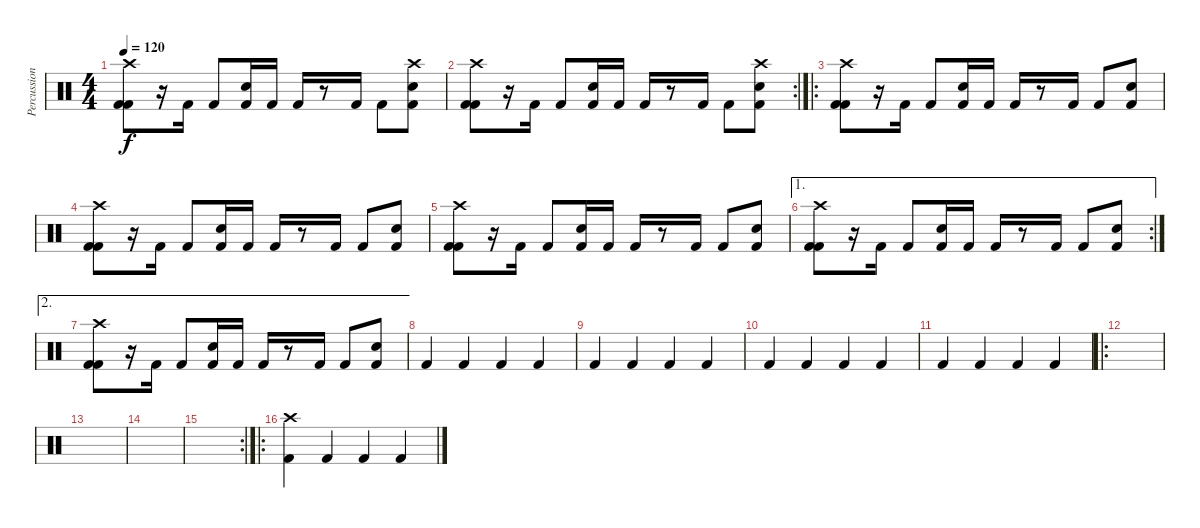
\track ("Percussion" "Percussion") {instrument percussion}
\staff {score}
\articulation defaults
\ts (4 4)
\tempo 120
\clef neutral
\ks c
("Crash high (hit)" "Kick (hit) 2" "Kick (hit) 2").8{dy f} r.16 "Kick (hit) 2".16 "Kick (hit) 2".8 ("Snare (hit) 2" "Kick (hit) 2").16 "Kick (hit) 2".16 "Kick (hit) 2".16 r.8 "Kick (hit) 2".16 "Kick (hit) 2".8 ("Crash high (hit)" "Snare (hit) 2" "Kick (hit) 2").8 |
\rc 2
("Crash high (hit)" "Kick (hit) 2" "Kick (hit) 2").8 r.16 "Kick (hit) 2".16 "Kick (hit) 2".8 ("Snare (hit) 2" "Kick (hit) 2").16 "Kick (hit) 2".16 "Kick (hit) 2".16 r.8 "Kick (hit) 2".16 "Kick (hit) 2".8 ("Crash high (hit)" "Snare (hit) 2" "Kick (hit) 2").8 |
\ro
("Crash high (hit)" "Kick (hit) 2" "Kick (hit) 2").8 r.16 "Kick (hit) 2".16 "Kick (hit) 2".8 ("Snare (hit) 2" "Kick (hit) 2").16 "Kick (hit) 2".16 "Kick (hit) 2".16 r.8 "Kick (hit) 2".16 "Kick (hit) 2".8 ("Snare (hit) 2" "Kick (hit) 2").8 |
("Crash high (hit)" "Kick (hit) 2" "Kick (hit) 2").8 r.16 "Kick (hit) 2".16 "Kick (hit) 2".8 ("Snare (hit) 2" "Kick (hit) 2").16 "Kick (hit) 2".16 "Kick (hit) 2".16 r.8 "Kick (hit) 2".16 "Kick (hit) 2".8 ("Snare (hit) 2" "Kick (hit) 2").8 |
("Crash high (hit)" "Kick (hit) 2" "Kick (hit) 2").8 r.16 "Kick (hit) 2".16 "Kick (hit) 2".8 ("Snare (hit) 2" "Kick (hit) 2").16 "Kick (hit) 2".16 "Kick (hit) 2".16 r.8 "Kick (hit) 2".16 "Kick (hit) 2".8 ("Snare (hit) 2" "Kick (hit) 2").8 |
\ae 1
\rc 2
("Crash high (hit)" "Kick (hit) 2" "Kick (hit) 2").8 r.16 "Kick (hit) 2".16 "Kick (hit) 2".8 ("Snare (hit) 2" "Kick (hit) 2").16 "Kick (hit) 2".16 "Kick (hit) 2".16 r.8 "Kick (hit) 2".16 "Kick (hit) 2".8 ("Snare (hit) 2" "Kick (hit) 2").8 |
\ae 2
("Crash high (hit)" "Kick (hit) 2" "Kick (hit) 2").8 r.16 "Kick (hit) 2".16 "Kick (hit) 2".8 ("Snare (hit) 2" "Kick (hit) 2").16 "Kick (hit) 2".16 "Kick (hit) 2".16 r.8 "Kick (hit) 2".16 "Kick (hit) 2".8 ("Snare (hit) 2" "Kick (hit) 2").8 |
"Kick (hit) 2".4 "Kick (hit) 2".4 "Kick (hit) 2".4 "Kick (hit) 2".4 |
"Kick (hit) 2".4 "Kick (hit) 2".4 "Kick (hit) 2".4 "Kick (hit) 2".4 |
"Kick (hit) 2".4 "Kick (hit) 2".4 "Kick (hit) 2".4 "Kick (hit) 2".4 |
"Kick (hit) 2".4 "Kick (hit) 2".4 "Kick (hit) 2".4 "Kick (hit) 2".4 |
\ro
|
|
|
\rc 2
|
\ro
("Crash high (hit)" "Kick (hit) 2").4 "Kick (hit) 2".4 "Kick (hit) 2".4 "Kick (hit) 2".4
